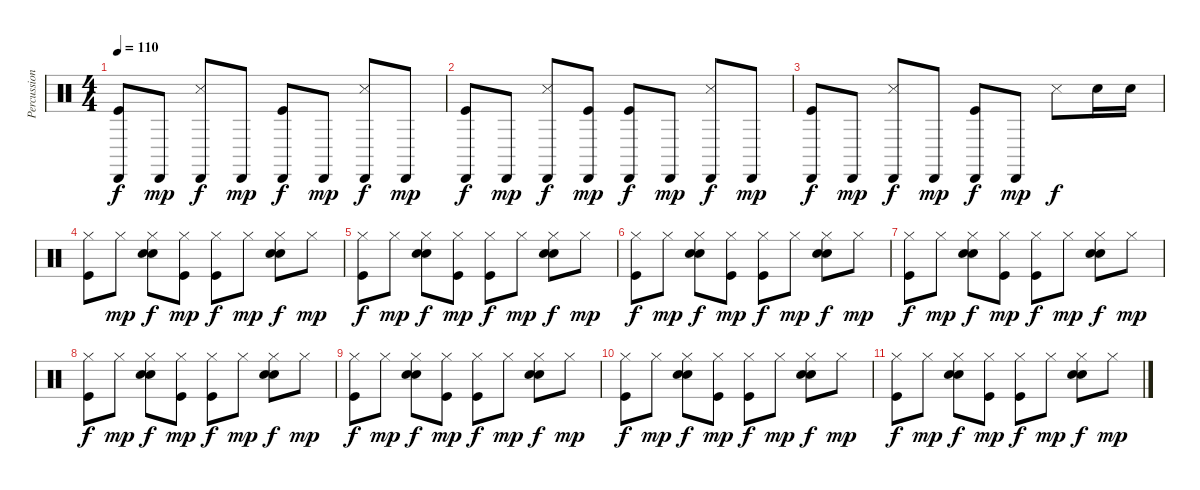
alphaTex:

\track ("Percussions" "Percussion") {instrument percussion}
\staff {score}
\articulation defaults
\ts (4 4)
\tempo 110
\clef neutral
\ks c
("Cabasa (hit)" "Kick (hit)").8{dy f} "Cabasa (hit)".8{dy mp} ("Cabasa (hit)" "Snare (side stick) 3").8{dy f} "Cabasa (hit)".8{dy mp} ("Cabasa (hit)" "Kick (hit)").8{dy f} "Cabasa (hit)".8{dy mp} ("Cabasa (hit)" "Snare (side stick) 3").8{dy f} "Cabasa (hit)".8{dy mp} |
("Cabasa (hit)" "Kick (hit)").8{dy f} "Cabasa (hit)".8{dy mp} ("Cabasa (hit)" "Snare (side stick) 3").8{dy f} ("Cabasa (hit)" "Kick (hit)").8{dy mp} ("Cabasa (hit)" "Kick (hit)").8{dy f} "Cabasa (hit)".8{dy mp} ("Cabasa (hit)" "Snare (side stick) 3").8{dy f} "Cabasa (hit)".8{dy mp} |
("Cabasa (hit)" "Kick (hit)").8{dy f} "Cabasa (hit)".8{dy mp} ("Cabasa (hit)" "Snare (side stick) 3").8{dy f} "Cabasa (hit)".8{dy mp} ("Cabasa (hit)" "Kick (hit)").8{dy f} "Cabasa (hit)".8{dy mp} "Snare (side stick) 3".8{dy f} "Snare (hit) 2".16 "Snare (hit) 2".16 |
("Hi-Hat (closed)" "Kick (hit)").8 "Hi-Hat (closed)".8{dy mp} ("Hi-Hat (closed)" "Snare (hit) 2" "Hand Clap (hit)").8{dy f} ("Hi-Hat (closed)" "Kick (hit)").8{dy mp} ("Hi-Hat (closed)" "Kick (hit)").8{dy f} "Hi-Hat (closed)".8{dy mp} ("Hi-Hat (closed)" "Snare (hit) 2" "Hand Clap (hit)").8{dy f} "Hi-Hat (closed)".8{dy mp} |
("Hi-Hat (closed)" "Kick (hit)").8{dy f} "Hi-Hat (closed)".8{dy mp} ("Hi-Hat (closed)" "Snare (hit) 2" "Hand Clap (hit)").8{dy f} ("Hi-Hat (closed)" "Kick (hit)").8{dy mp} ("Hi-Hat (closed)" "Kick (hit)").8{dy f} "Hi-Hat (closed)".8{dy mp} ("Hi-Hat (closed)" "Snare (hit) 2" "Hand Clap (hit)").8{dy f} "Hi-Hat (closed)".8{dy mp} |
("Hi-Hat (closed)" "Kick (hit)").8{dy f} "Hi-Hat (closed)".8{dy mp} ("Hi-Hat (closed)" "Snare (hit) 2" "Hand Clap (hit)").8{dy f} ("Hi-Hat (closed)" "Kick (hit)").8{dy mp} ("Hi-Hat (closed)" "Kick (hit)").8{dy f} "Hi-Hat (closed)".8{dy mp} ("Hi-Hat (closed)" "Snare (hit) 2" "Hand Clap (hit)").8{dy f} "Hi-Hat (closed)".8{dy mp} |
("Hi-Hat (closed)" "Kick (hit)").8{dy f} "Hi-Hat (closed)".8{dy mp} ("Hi-Hat (closed)" "Snare (hit) 2" "Hand Clap (hit)").8{dy f} ("Hi-Hat (closed)" "Kick (hit)").8{dy mp} ("Hi-Hat (closed)" "Kick (hit)").8{dy f} "Hi-Hat (closed)".8{dy mp} ("Hi-Hat (closed)" "Snare (hit) 2" "Hand Clap (hit)").8{dy f} "Hi-Hat (closed)".8{dy mp} |
("Hi-Hat (closed)" "Kick (hit)").8{dy f} "Hi-Hat (closed)".8{dy mp} ("Hi-Hat (closed)" "Snare (hit) 2" "Hand Clap (hit)").8{dy f} ("Hi-Hat (closed)" "Kick (hit)").8{dy mp} ("Hi-Hat (closed)" "Kick (hit)").8{dy f} "Hi-Hat (closed)".8{dy mp} ("Hi-Hat (closed)" "Snare (hit) 2" "Hand Clap (hit)").8{dy f} "Hi-Hat (closed)".8{dy mp} |
("Hi-Hat (closed)" "Kick (hit)").8{dy f} "Hi-Hat (closed)".8{dy mp} ("Hi-Hat (closed)" "Snare (hit) 2" "Hand Clap (hit)").8{dy f} ("Hi-Hat (closed)" "Kick (hit)").8{dy mp} ("Hi-Hat (closed)" "Kick (hit)").8{dy f} "Hi-Hat (closed)".8{dy mp} ("Hi-Hat (closed)" "Snare (hit) 2" "Hand Clap (hit)").8{dy f} "Hi-Hat (closed)".8{dy mp} |
("Hi-Hat (closed)" "Kick (hit)").8{dy f} "Hi-Hat (closed)".8{dy mp} ("Hi-Hat (closed)" "Snare (hit) 2" "Hand Clap (hit)").8{dy f} ("Hi-Hat (closed)" "Kick (hit)").8{dy mp} ("Hi-Hat (closed)" "Kick (hit)").8{dy f} "Hi-Hat (closed)".8{dy mp} ("Hi-Hat (closed)" "Snare (hit) 2" "Hand Clap (hit)").8{dy f} "Hi-Hat (closed)".8{dy mp} |
("Hi-Hat (closed)" "Kick (hit)").8{dy f} "Hi-Hat (closed)".8{dy mp} ("Hi-Hat (closed)" "Snare (hit) 2" "Hand Clap (hit)").8{dy f} ("Hi-Hat (closed)" "Kick (hit)").8{dy mp} ("Hi-Hat (closed)" "Kick (hit)").8{dy f} "Hi-Hat (closed)".8{dy mp} ("Hi-Hat (closed)" "Snare (hit) 2" "Hand Clap (hit)").8{dy f} "Hi-Hat (closed)".8{dy mp}
